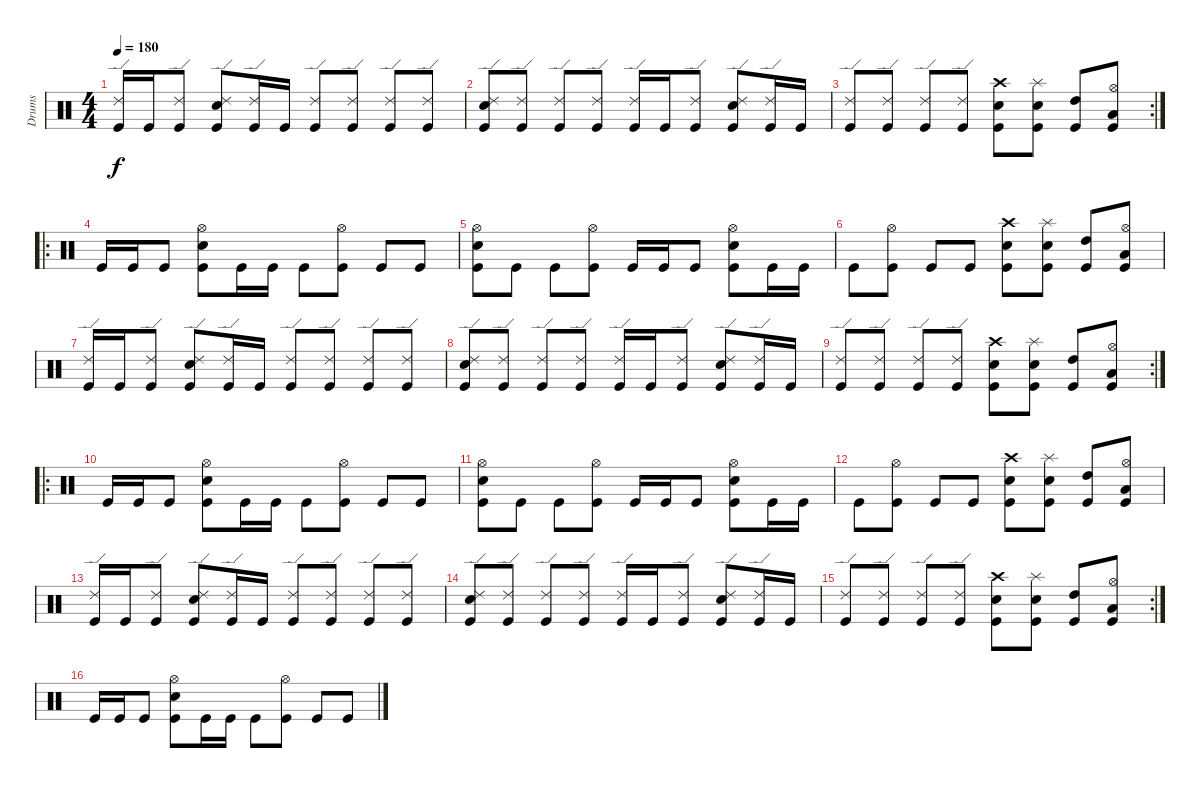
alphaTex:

\track ("Drums" "Drums") {instrument percussion}
\staff {score}
\articulation defaults
\ts (4 4)
\tempo 180
\clef neutral
\ks c
("Ride (edge) 2" "Kick (hit)").16{dy f} "Kick (hit)".16 ("Ride (edge) 2" "Kick (hit)").8 ("Ride (edge) 2" "Snare (hit) 2" "Kick (hit)").8 ("Ride (edge) 2" "Kick (hit)").16 "Kick (hit)".16 ("Ride (edge) 2" "Kick (hit)").8 ("Ride (edge) 2" "Kick (hit)").8 ("Ride (edge) 2" "Kick (hit)").8 ("Ride (edge) 2" "Kick (hit)").8 |
("Ride (edge) 2" "Snare (hit) 2" "Kick (hit)").8 ("Ride (edge) 2" "Kick (hit)").8 ("Ride (edge) 2" "Kick (hit)").8 ("Ride (edge) 2" "Kick (hit)").8 ("Ride (edge) 2" "Kick (hit)").16 "Kick (hit)".16 ("Ride (edge) 2" "Kick (hit)").8 ("Ride (edge) 2" "Snare (hit) 2" "Kick (hit)").8 ("Ride (edge) 2" "Kick (hit)").16 "Kick (hit)".16 |
\rc 2
("Ride (edge) 2" "Kick (hit)").8 ("Ride (edge) 2" "Kick (hit)").8 ("Ride (edge) 2" "Kick (hit)").8 ("Ride (edge) 2" "Kick (hit)").8 ("Crash high (hit)" "Snare (hit) 2" "Kick (hit)").8 ("Splash (hit)" "Snare (hit) 2" "Kick (hit)").8 ("High Tom (hit)" "Kick (hit)").8 ("Hi-Hat (open)" "Low Tom (hit)" "Kick (hit)").8 |
\ro "Kick (hit)".16 "Kick (hit)".16 "Kick (hit)".8
("Hi-Hat (open)" "Snare (hit) 2" "Kick (hit)").8 "Kick (hit)".16 "Kick (hit)".16 "Kick (hit)".8 ("Hi-Hat (open)" "Kick (hit)").8 "Kick (hit)".8 "Kick (hit)".8 |
("Hi-Hat (open)" "Snare (hit) 2" "Kick (hit)").8 "Kick (hit)".8 "Kick (hit)".8 ("Hi-Hat (open)" "Kick (hit)").8 "Kick (hit)".16 "Kick (hit)".16 "Kick (hit)".8 ("Hi-Hat (open)" "Snare (hit) 2" "Kick (hit)").8 "Kick (hit)".16 "Kick (hit)".16 |
"Kick (hit)".8 ("Hi-Hat (open)" "Kick (hit)").8 "Kick (hit)".8 "Kick (hit)".8 ("Crash high (hit)" "Snare (hit) 2" "Kick (hit)").8 ("Splash (hit)" "Snare (hit) 2" "Kick (hit)").8 ("High Tom (hit)" "Kick (hit)").8 ("Hi-Hat (open)" "Low Tom (hit)" "Kick (hit)").8 |
("Ride (edge) 2" "Kick (hit)").16 "Kick (hit)".16 ("Ride (edge) 2" "Kick (hit)").8 ("Ride (edge) 2" "Snare (hit) 2" "Kick (hit)").8 ("Ride (edge) 2" "Kick (hit)").16 "Kick (hit)".16 ("Ride (edge) 2" "Kick (hit)").8 ("Ride (edge) 2" "Kick (hit)").8 ("Ride (edge) 2" "Kick (hit)").8 ("Ride (edge) 2" "Kick (hit)").8 |
("Ride (edge) 2" "Snare (hit) 2" "Kick (hit)").8 ("Ride (edge) 2" "Kick (hit)").8 ("Ride (edge) 2" "Kick (hit)").8 ("Ride (edge) 2" "Kick (hit)").8 ("Ride (edge) 2" "Kick (hit)").16 "Kick (hit)".16 ("Ride (edge) 2" "Kick (hit)").8 ("Ride (edge) 2" "Snare (hit) 2" "Kick (hit)").8 ("Ride (edge) 2" "Kick (hit)").16 "Kick (hit)".16 |
\rc 2
("Ride (edge) 2" "Kick (hit)").8 ("Ride (edge) 2" "Kick (hit)").8 ("Ride (edge) 2" "Kick (hit)").8 ("Ride (edge) 2" "Kick (hit)").8 ("Crash high (hit)" "Snare (hit) 2" "Kick (hit)").8 ("Splash (hit)" "Snare (hit) 2" "Kick (hit)").8 ("High Tom (hit)" "Kick (hit)").8 ("Hi-Hat (open)" "Low Tom (hit)" "Kick (hit)").8 |
\ro "Kick (hit)".16 "Kick (hit)".16 "Kick (hit)".8
("Hi-Hat (open)" "Snare (hit) 2" "Kick (hit)").8 "Kick (hit)".16 "Kick (hit)".16 "Kick (hit)".8 ("Hi-Hat (open)" "Kick (hit)").8 "Kick (hit)".8 "Kick (hit)".8 |
("Hi-Hat (open)" "Snare (hit) 2" "Kick (hit)").8 "Kick (hit)".8 "Kick (hit)".8 ("Hi-Hat (open)" "Kick (hit)").8 "Kick (hit)".16 "Kick (hit)".16 "Kick (hit)".8 ("Hi-Hat (open)" "Snare (hit) 2" "Kick (hit)").8 "Kick (hit)".16 "Kick (hit)".16 |
"Kick (hit)".8 ("Hi-Hat (open)" "Kick (hit)").8 "Kick (hit)".8 "Kick (hit)".8 ("Crash high (hit)" "Snare (hit) 2" "Kick (hit)").8 ("Splash (hit)" "Snare (hit) 2" "Kick (hit)").8 ("High Tom (hit)" "Kick (hit)").8 ("Hi-Hat (open)" "Low Tom (hit)" "Kick (hit)").8 |
("Ride (edge) 2" "Kick (hit)").16 "Kick (hit)".16 ("Ride (edge) 2" "Kick (hit)").8 ("Ride (edge) 2" "Snare (hit) 2" "Kick (hit)").8 ("Ride (edge) 2" "Kick (hit)").16 "Kick (hit)".16 ("Ride (edge) 2" "Kick (hit)").8 ("Ride (edge) 2" "Kick (hit)").8 ("Ride (edge) 2" "Kick (hit)").8 ("Ride (edge) 2" "Kick (hit)").8 |
("Ride (edge) 2" "Snare (hit) 2" "Kick (hit)").8 ("Ride (edge) 2" "Kick (hit)").8 ("Ride (edge) 2" "Kick (hit)").8 ("Ride (edge) 2" "Kick (hit)").8 ("Ride (edge) 2" "Kick (hit)").16 "Kick (hit)".16 ("Ride (edge) 2" "Kick (hit)").8 ("Ride (edge) 2" "Snare (hit) 2" "Kick (hit)").8 ("Ride (edge) 2" "Kick (hit)").16 "Kick (hit)".16 |
\rc 2
("Ride (edge) 2" "Kick (hit)").8 ("Ride (edge) 2" "Kick (hit)").8 ("Ride (edge) 2" "Kick (hit)").8 ("Ride (edge) 2" "Kick (hit)").8 ("Crash high (hit)" "Snare (hit) 2" "Kick (hit)").8 ("Splash (hit)" "Snare (hit) 2" "Kick (hit)").8 ("High Tom (hit)" "Kick (hit)").8 ("Hi-Hat (open)" "Low Tom (hit)" "Kick (hit)").8 |
"Kick (hit)".16 "Kick (hit)".16 "Kick (hit)".8 ("Hi-Hat (open)" "Snare (hit) 2" "Kick (hit)").8 "Kick (hit)".16 "Kick (hit)".16 "Kick (hit)".8 ("Hi-Hat (open)" "Kick (hit)").8 "Kick (hit)".8 "Kick (hit)".8
